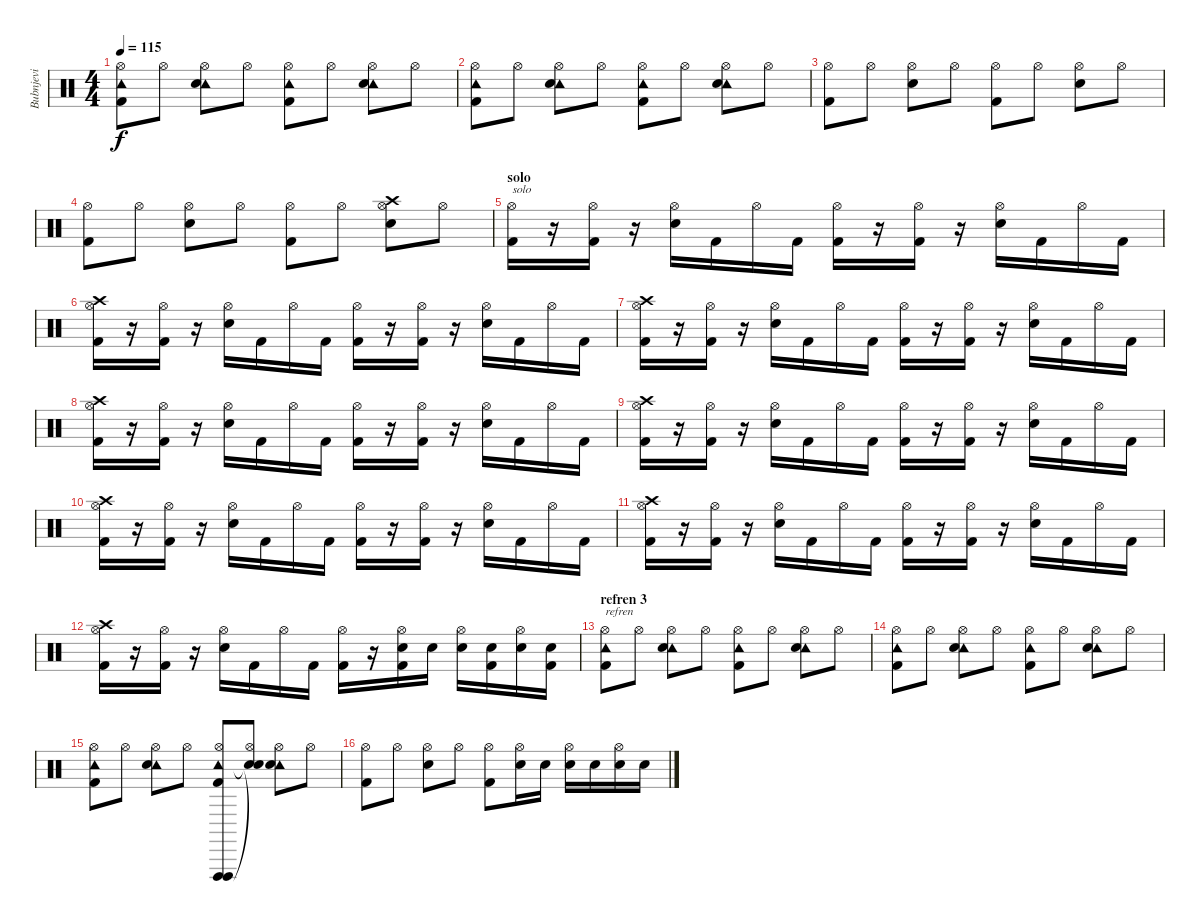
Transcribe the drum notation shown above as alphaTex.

\track ("Bubnjevi" "Bubnjevi") {instrument percussion}
\staff {score}
\articulation defaults
\ts (4 4)
\tempo 115
\clef neutral
\ks c
("Hi-Hat (open)" "Tambourine (hit)" "Kick (hit) 2").8{dy f} "Hi-Hat (open)".8 ("Hi-Hat (open)" "Tambourine (hit)" "Electric Snare (hit)").8 "Hi-Hat (open)".8 ("Hi-Hat (open)" "Tambourine (hit)" "Kick (hit) 2").8 "Hi-Hat (open)".8 ("Hi-Hat (open)" "Tambourine (hit)" "Electric Snare (hit)").8 "Hi-Hat (open)".8 |
("Hi-Hat (open)" "Tambourine (hit)" "Kick (hit) 2").8 "Hi-Hat (open)".8 ("Hi-Hat (open)" "Tambourine (hit)" "Electric Snare (hit)").8 "Hi-Hat (open)".8 ("Hi-Hat (open)" "Tambourine (hit)" "Kick (hit) 2").8 "Hi-Hat (open)".8 ("Hi-Hat (open)" "Tambourine (hit)" "Electric Snare (hit)").8 "Hi-Hat (open)".8 |
("Hi-Hat (open)" "Kick (hit) 2").8 "Hi-Hat (open)".8 ("Hi-Hat (open)" "Electric Snare (hit)").8 "Hi-Hat (open)".8 ("Hi-Hat (open)" "Kick (hit) 2").8 "Hi-Hat (open)".8 ("Hi-Hat (open)" "Electric Snare (hit)").8 "Hi-Hat (open)".8 |
("Hi-Hat (open)" "Kick (hit) 2").8 "Hi-Hat (open)".8 ("Hi-Hat (open)" "Electric Snare (hit)").8 "Hi-Hat (open)".8 ("Hi-Hat (open)" "Kick (hit) 2").8 "Hi-Hat (open)".8 ("Hi-Hat (open)" "Crash high (hit)" "Electric Snare (hit)").8 "Hi-Hat (open)".8 |
\section ("" "solo")
("Hi-Hat (open)" "Kick (hit) 2").16{txt "solo"} r.16 ("Hi-Hat (open)" "Kick (hit) 2").16 r.16 ("Hi-Hat (open)" "Electric Snare (hit)").16 "Kick (hit) 2".16 "Hi-Hat (open)".16 "Kick (hit) 2".16 ("Hi-Hat (open)" "Kick (hit) 2").16 r.16 ("Hi-Hat (open)" "Kick (hit) 2").16 r.16 ("Hi-Hat (open)" "Electric Snare (hit)").16 "Kick (hit) 2".16 "Hi-Hat (open)".16 "Kick (hit) 2".16 |
("Hi-Hat (open)" "Crash high (hit)" "Kick (hit) 2").16 r.16 ("Hi-Hat (open)" "Kick (hit) 2").16 r.16 ("Hi-Hat (open)" "Electric Snare (hit)").16 "Kick (hit) 2".16 "Hi-Hat (open)".16 "Kick (hit) 2".16 ("Hi-Hat (open)" "Kick (hit) 2").16 r.16 ("Hi-Hat (open)" "Kick (hit) 2").16 r.16 ("Hi-Hat (open)" "Electric Snare (hit)").16 "Kick (hit) 2".16 "Hi-Hat (open)".16 "Kick (hit) 2".16 |
("Hi-Hat (open)" "Crash high (hit)" "Kick (hit) 2").16 r.16 ("Hi-Hat (open)" "Kick (hit) 2").16 r.16 ("Hi-Hat (open)" "Electric Snare (hit)").16 "Kick (hit) 2".16 "Hi-Hat (open)".16 "Kick (hit) 2".16 ("Hi-Hat (open)" "Kick (hit) 2").16 r.16 ("Hi-Hat (open)" "Kick (hit) 2").16 r.16 ("Hi-Hat (open)" "Electric Snare (hit)").16 "Kick (hit) 2".16 "Hi-Hat (open)".16 "Kick (hit) 2".16 |
("Hi-Hat (open)" "Crash high (hit)" "Kick (hit) 2").16 r.16 ("Hi-Hat (open)" "Kick (hit) 2").16 r.16 ("Hi-Hat (open)" "Electric Snare (hit)").16 "Kick (hit) 2".16 "Hi-Hat (open)".16 "Kick (hit) 2".16 ("Hi-Hat (open)" "Kick (hit) 2").16 r.16 ("Hi-Hat (open)" "Kick (hit) 2").16 r.16 ("Hi-Hat (open)" "Electric Snare (hit)").16 "Kick (hit) 2".16 "Hi-Hat (open)".16 "Kick (hit) 2".16 |
("Hi-Hat (open)" "Crash high (hit)" "Kick (hit) 2").16 r.16 ("Hi-Hat (open)" "Kick (hit) 2").16 r.16 ("Hi-Hat (open)" "Electric Snare (hit)").16 "Kick (hit) 2".16 "Hi-Hat (open)".16 "Kick (hit) 2".16 ("Hi-Hat (open)" "Kick (hit) 2").16 r.16 ("Hi-Hat (open)" "Kick (hit) 2").16 r.16 ("Hi-Hat (open)" "Electric Snare (hit)").16 "Kick (hit) 2".16 "Hi-Hat (open)".16 "Kick (hit) 2".16 |
("Hi-Hat (open)" "Crash high (hit)" "Kick (hit) 2").16 r.16 ("Hi-Hat (open)" "Kick (hit) 2").16 r.16 ("Hi-Hat (open)" "Electric Snare (hit)").16 "Kick (hit) 2".16 "Hi-Hat (open)".16 "Kick (hit) 2".16 ("Hi-Hat (open)" "Kick (hit) 2").16 r.16 ("Hi-Hat (open)" "Kick (hit) 2").16 r.16 ("Hi-Hat (open)" "Electric Snare (hit)").16 "Kick (hit) 2".16 "Hi-Hat (open)".16 "Kick (hit) 2".16 |
("Hi-Hat (open)" "Crash high (hit)" "Kick (hit) 2").16 r.16 ("Hi-Hat (open)" "Kick (hit) 2").16 r.16 ("Hi-Hat (open)" "Electric Snare (hit)").16 "Kick (hit) 2".16 "Hi-Hat (open)".16 "Kick (hit) 2".16 ("Hi-Hat (open)" "Kick (hit) 2").16 r.16 ("Hi-Hat (open)" "Kick (hit) 2").16 r.16 ("Hi-Hat (open)" "Electric Snare (hit)").16 "Kick (hit) 2".16 "Hi-Hat (open)".16 "Kick (hit) 2".16 |
("Hi-Hat (open)" "Crash high (hit)" "Kick (hit) 2").16 r.16 ("Hi-Hat (open)" "Kick (hit) 2").16 r.16 ("Hi-Hat (open)" "Electric Snare (hit)").16 "Kick (hit) 2".16 "Hi-Hat (open)".16 "Kick (hit) 2".16 ("Hi-Hat (open)" "Kick (hit) 2").16 r.16 ("Hi-Hat (open)" "Electric Snare (hit)" "Kick (hit) 2").16 "Electric Snare (hit)".16 ("Hi-Hat (open)" "Electric Snare (hit)").16 ("Electric Snare (hit)" "Kick (hit) 2").16 ("Hi-Hat (open)" "Electric Snare (hit)").16 ("Electric Snare (hit)" "Kick (hit) 2").16 |
\section ("" "refren 3")
("Hi-Hat (open)" "Tambourine (hit)" "Kick (hit) 2").8{txt "refren"} "Hi-Hat (open)".8 ("Hi-Hat (open)" "Tambourine (hit)" "Electric Snare (hit)").8 "Hi-Hat (open)".8 ("Hi-Hat (open)" "Tambourine (hit)" "Kick (hit) 2").8 "Hi-Hat (open)".8 ("Hi-Hat (open)" "Tambourine (hit)" "Electric Snare (hit)").8 "Hi-Hat (open)".8 |
("Hi-Hat (open)" "Tambourine (hit)" "Kick (hit) 2").8 "Hi-Hat (open)".8 ("Hi-Hat (open)" "Tambourine (hit)" "Electric Snare (hit)").8 "Hi-Hat (open)".8 ("Hi-Hat (open)" "Tambourine (hit)" "Kick (hit) 2").8 "Hi-Hat (open)".8 ("Hi-Hat (open)" "Tambourine (hit)" "Electric Snare (hit)").8 "Hi-Hat (open)".8 |
("Hi-Hat (open)" "Tambourine (hit)" "Kick (hit) 2").8 "Hi-Hat (open)".8 ("Hi-Hat (open)" "Tambourine (hit)" "Electric Snare (hit)").8 "Hi-Hat (open)".8 ("Hi-Hat (open)" "Tambourine (hit)" "Vibraslap (hit)" "Vibraslap (hit)" "Kick (hit) 2").8 ("Hi-Hat (open)" "Snare (hit)"{t} "Snare (hit)"{t}).8 ("Hi-Hat (open)" "Tambourine (hit)" "Electric Snare (hit)").8 "Hi-Hat (open)".8 |
("Hi-Hat (open)" "Kick (hit) 2").8 "Hi-Hat (open)".8 ("Hi-Hat (open)" "Electric Snare (hit)").8 "Hi-Hat (open)".8 ("Hi-Hat (open)" "Kick (hit) 2").8 ("Hi-Hat (open)" "Electric Snare (hit)").16 "Electric Snare (hit)".16 ("Hi-Hat (open)" "Electric Snare (hit)").16 "Electric Snare (hit)".16 ("Hi-Hat (open)" "Electric Snare (hit)").16 "Electric Snare (hit)".16
